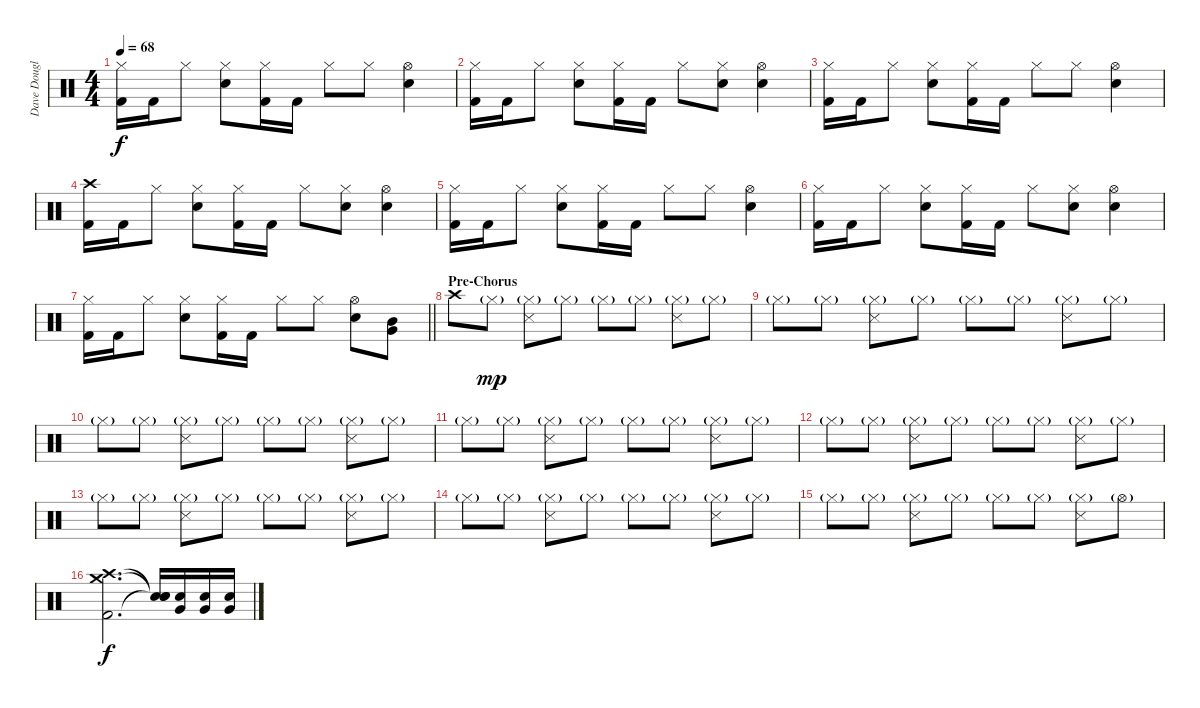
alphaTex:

\track ("Dave Douglas - Drums" "Dave Dougl") {instrument percussion}
\staff {score}
\articulation defaults
\ts (4 4)
\tempo 68
\clef neutral
\ks c
("Hi-Hat (closed)" "Kick (hit) 2").16{dy f} "Kick (hit) 2".16 "Hi-Hat (closed)".8 ("Hi-Hat (closed)" "Snare (hit) 2").8 ("Hi-Hat (closed)" "Kick (hit) 2").16 "Kick (hit) 2".16 "Hi-Hat (closed)".8 "Hi-Hat (closed)".8 ("Hi-Hat (open)" "Snare (hit) 2").4 |
("Hi-Hat (closed)" "Kick (hit) 2").16 "Kick (hit) 2".16 "Hi-Hat (closed)".8 ("Hi-Hat (closed)" "Snare (hit) 2").8 ("Hi-Hat (closed)" "Kick (hit) 2").16 "Kick (hit) 2".16 "Hi-Hat (closed)".8 ("Hi-Hat (closed)" "Snare (hit) 2").8 ("Hi-Hat (open)" "Snare (hit) 2").4 |
("Hi-Hat (closed)" "Kick (hit) 2").16 "Kick (hit) 2".16 "Hi-Hat (closed)".8 ("Hi-Hat (closed)" "Snare (hit) 2").8 ("Hi-Hat (closed)" "Kick (hit) 2").16 "Kick (hit) 2".16 "Hi-Hat (closed)".8 "Hi-Hat (closed)".8 ("Hi-Hat (open)" "Snare (hit) 2").4 |
("Crash high (hit)" "Kick (hit) 2").16 "Kick (hit) 2".16 "Hi-Hat (closed)".8 ("Hi-Hat (closed)" "Snare (hit) 2").8 ("Hi-Hat (closed)" "Kick (hit) 2").16 "Kick (hit) 2".16 "Hi-Hat (closed)".8 ("Hi-Hat (closed)" "Snare (hit) 2").8 ("Hi-Hat (open)" "Snare (hit) 2").4 |
("Hi-Hat (closed)" "Kick (hit) 2").16 "Kick (hit) 2".16 "Hi-Hat (closed)".8 ("Hi-Hat (closed)" "Snare (hit) 2").8 ("Hi-Hat (closed)" "Kick (hit) 2").16 "Kick (hit) 2".16 "Hi-Hat (closed)".8 "Hi-Hat (closed)".8 ("Hi-Hat (open)" "Snare (hit) 2").4 |
("Hi-Hat (closed)" "Kick (hit) 2").16 "Kick (hit) 2".16 "Hi-Hat (closed)".8 ("Hi-Hat (closed)" "Snare (hit) 2").8 ("Hi-Hat (closed)" "Kick (hit) 2").16 "Kick (hit) 2".16 "Hi-Hat (closed)".8 ("Hi-Hat (closed)" "Snare (hit) 2").8 ("Hi-Hat (open)" "Snare (hit) 2").4 |
\barLineRight lightlight
("Hi-Hat (closed)" "Kick (hit) 2").16 "Kick (hit) 2".16 "Hi-Hat (closed)".8 ("Hi-Hat (closed)" "Snare (hit) 2").8 ("Hi-Hat (closed)" "Kick (hit) 2").16 "Kick (hit) 2".16 "Hi-Hat (closed)".8 "Hi-Hat (closed)".8 ("Hi-Hat (open)" "Snare (hit) 2").8 ("Mid Tom (hit)" "Very Low Tom (hit)").8 |
\section ("" "Pre-Chorus")
"Crash high (hit)".8 "Hi-Hat (closed)"{g}.8{dy mp} ("Hi-Hat (closed)"{g} "Metronome (hit)").8 "Hi-Hat (closed)"{g}.8 "Hi-Hat (closed)"{g}.8 "Hi-Hat (closed)"{g}.8 ("Hi-Hat (closed)"{g} "Metronome (hit)").8 "Hi-Hat (closed)"{g}.8 |
"Hi-Hat (closed)"{g}.8 "Hi-Hat (closed)"{g}.8 ("Hi-Hat (closed)"{g} "Metronome (hit)").8 "Hi-Hat (closed)"{g}.8 "Hi-Hat (closed)"{g}.8 "Hi-Hat (closed)"{g}.8 ("Hi-Hat (closed)"{g} "Metronome (hit)").8 "Hi-Hat (closed)"{g}.8 |
"Hi-Hat (closed)"{g}.8 "Hi-Hat (closed)"{g}.8 ("Hi-Hat (closed)"{g} "Metronome (hit)").8 "Hi-Hat (closed)"{g}.8 "Hi-Hat (closed)"{g}.8 "Hi-Hat (closed)"{g}.8 ("Hi-Hat (closed)"{g} "Metronome (hit)").8 "Hi-Hat (closed)"{g}.8 |
"Hi-Hat (closed)"{g}.8 "Hi-Hat (closed)"{g}.8 ("Hi-Hat (closed)"{g} "Metronome (hit)").8 "Hi-Hat (closed)"{g}.8 "Hi-Hat (closed)"{g}.8 "Hi-Hat (closed)"{g}.8 ("Hi-Hat (closed)"{g} "Metronome (hit)").8 "Hi-Hat (closed)"{g}.8 |
"Hi-Hat (closed)"{g}.8 "Hi-Hat (closed)"{g}.8 ("Hi-Hat (closed)"{g} "Metronome (hit)").8 "Hi-Hat (closed)"{g}.8 "Hi-Hat (closed)"{g}.8 "Hi-Hat (closed)"{g}.8 ("Hi-Hat (closed)"{g} "Metronome (hit)").8 "Hi-Hat (closed)"{g}.8 |
"Hi-Hat (closed)"{g}.8 "Hi-Hat (closed)"{g}.8 ("Hi-Hat (closed)"{g} "Metronome (hit)").8 "Hi-Hat (closed)"{g}.8 "Hi-Hat (closed)"{g}.8 "Hi-Hat (closed)"{g}.8 ("Hi-Hat (closed)"{g} "Metronome (hit)").8 "Hi-Hat (closed)"{g}.8 |
"Hi-Hat (closed)"{g}.8 "Hi-Hat (closed)"{g}.8 ("Hi-Hat (closed)"{g} "Metronome (hit)").8 "Hi-Hat (closed)"{g}.8 "Hi-Hat (closed)"{g}.8 "Hi-Hat (closed)"{g}.8 ("Hi-Hat (closed)"{g} "Metronome (hit)").8 "Hi-Hat (closed)"{g}.8 |
"Hi-Hat (closed)"{g}.8 "Hi-Hat (closed)"{g}.8 ("Hi-Hat (closed)"{g} "Metronome (hit)").8 "Hi-Hat (closed)"{g}.8 "Hi-Hat (closed)"{g}.8 "Hi-Hat (closed)"{g}.8 ("Hi-Hat (closed)"{g} "Metronome (hit)").8 "Hi-Hat (open)"{g}.8 |
("Crash medium (hit)" "Crash high (hit)" "Kick (hit) 2").2{d dy f} ("Snare (hit)"{t} "Snare (hit)"{t} "Snare (hit)"{t}).16{volume 0} ("Snare (hit) 2" "Very Low Tom (hit)").16{volume 16} ("Snare (hit) 2" "Very Low Tom (hit)").16 ("Snare (hit) 2" "Very Low Tom (hit)").16
